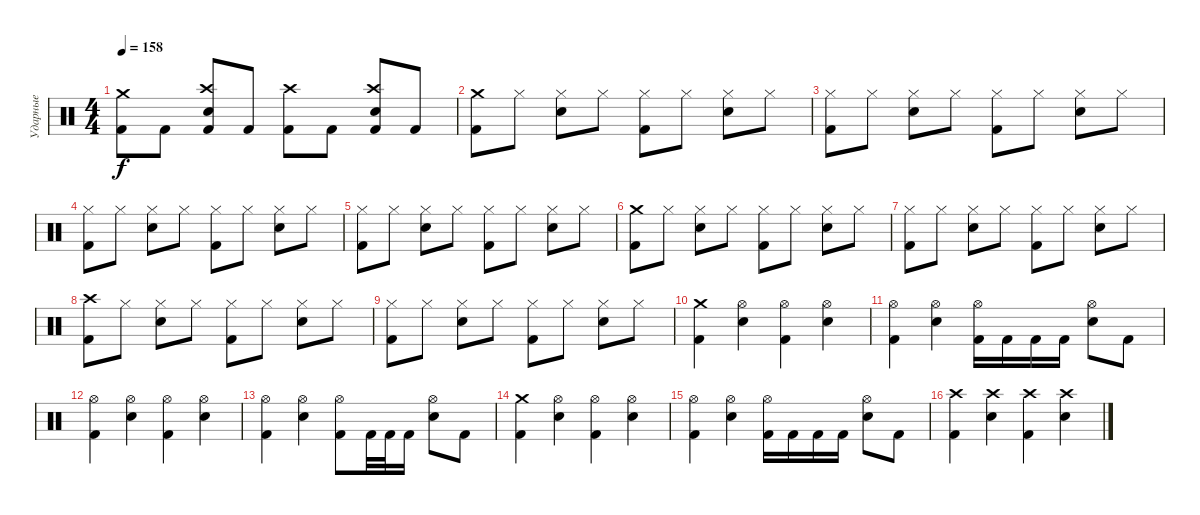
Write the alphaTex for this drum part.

\track ("Ударные" "Ударные") {instrument percussion}
\staff {score}
\articulation defaults
\ts (4 4)
\tempo 158
\clef neutral
\ks c
("Crash medium (hit)" "Kick (hit) 2").8{dy f} "Kick (hit) 2".8 ("Crash high (hit)" "Snare (hit) 2" "Kick (hit) 2").8 "Kick (hit) 2".8 ("Crash high (hit)" "Kick (hit) 2").8 "Kick (hit) 2".8 ("Crash high (hit)" "Snare (hit) 2" "Kick (hit) 2").8 "Kick (hit) 2".8 |
("Crash medium (hit)" "Kick (hit) 2").8 "Hi-Hat (closed)".8 ("Hi-Hat (closed)" "Snare (hit) 2").8 "Hi-Hat (closed)".8 ("Hi-Hat (closed)" "Kick (hit) 2").8 "Hi-Hat (closed)".8 ("Hi-Hat (closed)" "Snare (hit) 2").8 "Hi-Hat (closed)".8 |
("Hi-Hat (closed)" "Kick (hit) 2").8 "Hi-Hat (closed)".8 ("Hi-Hat (closed)" "Snare (hit) 2").8 "Hi-Hat (closed)".8 ("Hi-Hat (closed)" "Kick (hit) 2").8 "Hi-Hat (closed)".8 ("Hi-Hat (closed)" "Snare (hit) 2").8 "Hi-Hat (closed)".8 |
("Hi-Hat (closed)" "Kick (hit) 2").8 "Hi-Hat (closed)".8 ("Hi-Hat (closed)" "Snare (hit) 2").8 "Hi-Hat (closed)".8 ("Hi-Hat (closed)" "Kick (hit) 2").8 "Hi-Hat (closed)".8 ("Hi-Hat (closed)" "Snare (hit) 2").8 "Hi-Hat (closed)".8 |
("Hi-Hat (closed)" "Kick (hit) 2").8 "Hi-Hat (closed)".8 ("Hi-Hat (closed)" "Snare (hit) 2").8 "Hi-Hat (closed)".8 ("Hi-Hat (closed)" "Kick (hit) 2").8 "Hi-Hat (closed)".8 ("Hi-Hat (closed)" "Snare (hit) 2").8 "Hi-Hat (closed)".8 |
("Crash medium (hit)" "Kick (hit) 2").8 "Hi-Hat (closed)".8 ("Hi-Hat (closed)" "Snare (hit) 2").8 "Hi-Hat (closed)".8 ("Hi-Hat (closed)" "Kick (hit) 2").8 "Hi-Hat (closed)".8 ("Hi-Hat (closed)" "Snare (hit) 2").8 "Hi-Hat (closed)".8 |
("Hi-Hat (closed)" "Kick (hit) 2").8 "Hi-Hat (closed)".8 ("Hi-Hat (closed)" "Snare (hit) 2").8 "Hi-Hat (closed)".8 ("Hi-Hat (closed)" "Kick (hit) 2").8 "Hi-Hat (closed)".8 ("Hi-Hat (closed)" "Snare (hit) 2").8 "Hi-Hat (closed)".8 |
("Crash high (hit)" "Kick (hit) 2").8 "Hi-Hat (closed)".8 ("Hi-Hat (closed)" "Snare (hit) 2").8 "Hi-Hat (closed)".8 ("Hi-Hat (closed)" "Kick (hit) 2").8 "Hi-Hat (closed)".8 ("Hi-Hat (closed)" "Snare (hit) 2").8 "Hi-Hat (closed)".8 |
("Hi-Hat (closed)" "Kick (hit) 2").8 "Hi-Hat (closed)".8 ("Hi-Hat (closed)" "Snare (hit) 2").8 "Hi-Hat (closed)".8 ("Hi-Hat (closed)" "Kick (hit) 2").8 "Hi-Hat (closed)".8 ("Hi-Hat (closed)" "Snare (hit) 2").8 "Hi-Hat (closed)".8 |
("Crash medium (hit)" "Kick (hit) 2").4 ("Hi-Hat (open)" "Snare (hit) 2").4 ("Hi-Hat (open)" "Kick (hit) 2").4 ("Hi-Hat (open)" "Snare (hit) 2").4 |
("Hi-Hat (open)" "Kick (hit) 2").4 ("Hi-Hat (open)" "Snare (hit) 2").4 ("Hi-Hat (open)" "Kick (hit) 2").16 "Kick (hit) 2".16 "Kick (hit) 2".16 "Kick (hit) 2".16 ("Hi-Hat (open)" "Snare (hit) 2").8 "Kick (hit) 2".8 |
("Hi-Hat (open)" "Kick (hit) 2").4 ("Hi-Hat (open)" "Snare (hit) 2").4 ("Hi-Hat (open)" "Kick (hit) 2").4 ("Hi-Hat (open)" "Snare (hit) 2").4 |
("Hi-Hat (open)" "Kick (hit) 2").4 ("Hi-Hat (open)" "Snare (hit) 2").4 ("Hi-Hat (open)" "Kick (hit) 2").8 "Kick (hit) 2".32 "Kick (hit) 2".32 "Kick (hit) 2".16 ("Hi-Hat (open)" "Snare (hit) 2").8 "Kick (hit) 2".8 |
("Crash medium (hit)" "Kick (hit) 2").4 ("Hi-Hat (open)" "Snare (hit) 2").4 ("Hi-Hat (open)" "Kick (hit) 2").4 ("Hi-Hat (open)" "Snare (hit) 2").4 |
("Hi-Hat (open)" "Kick (hit) 2").4 ("Hi-Hat (open)" "Snare (hit) 2").4 ("Hi-Hat (open)" "Kick (hit) 2").16 "Kick (hit) 2".16 "Kick (hit) 2".16 "Kick (hit) 2".16 ("Hi-Hat (open)" "Snare (hit) 2").8 "Kick (hit) 2".8 |
("Crash high (hit)" "Kick (hit) 2").4 ("Crash high (hit)" "Snare (hit) 2").4 ("Crash high (hit)" "Kick (hit) 2").4 ("Crash high (hit)" "Snare (hit) 2").4
